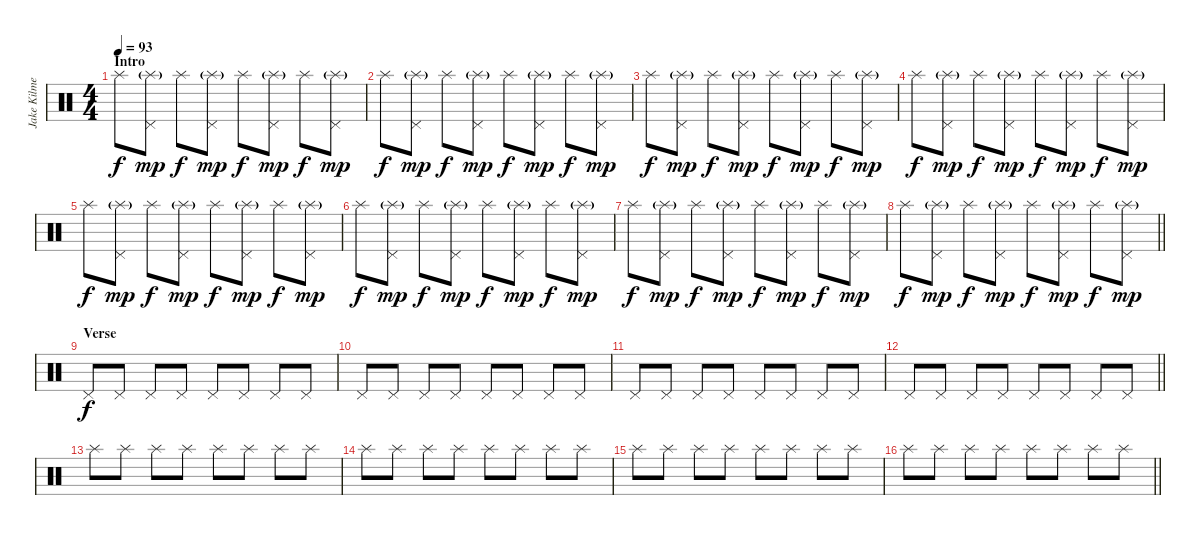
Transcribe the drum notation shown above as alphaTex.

\track ("Jake Kilmer (Drums)" "Jake Kilme") {instrument percussion}
\staff {score}
\articulation defaults
\ts (4 4)
\section ("" "Intro")
\tempo 93
\clef neutral
\ks c "Splash (hit)".8{dy f}
("Splash (hit)"{g} "Pedal Hi-Hat (hit)").8{dy mp} "Splash (hit)".8{dy f} ("Splash (hit)"{g} "Pedal Hi-Hat (hit)").8{dy mp} "Splash (hit)".8{dy f} ("Splash (hit)"{g} "Pedal Hi-Hat (hit)").8{dy mp} "Splash (hit)".8{dy f} ("Splash (hit)"{g} "Pedal Hi-Hat (hit)").8{dy mp} |
"Splash (hit)".8{dy f} ("Splash (hit)"{g} "Pedal Hi-Hat (hit)").8{dy mp} "Splash (hit)".8{dy f} ("Splash (hit)"{g} "Pedal Hi-Hat (hit)").8{dy mp} "Splash (hit)".8{dy f} ("Splash (hit)"{g} "Pedal Hi-Hat (hit)").8{dy mp} "Splash (hit)".8{dy f} ("Splash (hit)"{g} "Pedal Hi-Hat (hit)").8{dy mp} |
"Splash (hit)".8{dy f} ("Splash (hit)"{g} "Pedal Hi-Hat (hit)").8{dy mp} "Splash (hit)".8{dy f} ("Splash (hit)"{g} "Pedal Hi-Hat (hit)").8{dy mp} "Splash (hit)".8{dy f} ("Splash (hit)"{g} "Pedal Hi-Hat (hit)").8{dy mp} "Splash (hit)".8{dy f} ("Splash (hit)"{g} "Pedal Hi-Hat (hit)").8{dy mp} |
"Splash (hit)".8{dy f} ("Splash (hit)"{g} "Pedal Hi-Hat (hit)").8{dy mp} "Splash (hit)".8{dy f} ("Splash (hit)"{g} "Pedal Hi-Hat (hit)").8{dy mp} "Splash (hit)".8{dy f} ("Splash (hit)"{g} "Pedal Hi-Hat (hit)").8{dy mp} "Splash (hit)".8{dy f} ("Splash (hit)"{g} "Pedal Hi-Hat (hit)").8{dy mp} |
"Splash (hit)".8{dy f} ("Splash (hit)"{g} "Pedal Hi-Hat (hit)").8{dy mp} "Splash (hit)".8{dy f} ("Splash (hit)"{g} "Pedal Hi-Hat (hit)").8{dy mp} "Splash (hit)".8{dy f} ("Splash (hit)"{g} "Pedal Hi-Hat (hit)").8{dy mp} "Splash (hit)".8{dy f} ("Splash (hit)"{g} "Pedal Hi-Hat (hit)").8{dy mp} |
"Splash (hit)".8{dy f} ("Splash (hit)"{g} "Pedal Hi-Hat (hit)").8{dy mp} "Splash (hit)".8{dy f} ("Splash (hit)"{g} "Pedal Hi-Hat (hit)").8{dy mp} "Splash (hit)".8{dy f} ("Splash (hit)"{g} "Pedal Hi-Hat (hit)").8{dy mp} "Splash (hit)".8{dy f} ("Splash (hit)"{g} "Pedal Hi-Hat (hit)").8{dy mp} |
"Splash (hit)".8{dy f} ("Splash (hit)"{g} "Pedal Hi-Hat (hit)").8{dy mp} "Splash (hit)".8{dy f} ("Splash (hit)"{g} "Pedal Hi-Hat (hit)").8{dy mp} "Splash (hit)".8{dy f} ("Splash (hit)"{g} "Pedal Hi-Hat (hit)").8{dy mp} "Splash (hit)".8{dy f} ("Splash (hit)"{g} "Pedal Hi-Hat (hit)").8{dy mp} |
\barLineRight lightlight "Splash (hit)".8{dy f}
("Splash (hit)"{g} "Pedal Hi-Hat (hit)").8{dy mp} "Splash (hit)".8{dy f} ("Splash (hit)"{g} "Pedal Hi-Hat (hit)").8{dy mp} "Splash (hit)".8{dy f} ("Splash (hit)"{g} "Pedal Hi-Hat (hit)").8{dy mp} "Splash (hit)".8{dy f} ("Splash (hit)"{g} "Pedal Hi-Hat (hit)").8{dy mp} |
\section ("" "Verse")
"Pedal Hi-Hat (hit)".8{dy f} "Pedal Hi-Hat (hit)".8 "Pedal Hi-Hat (hit)".8 "Pedal Hi-Hat (hit)".8 "Pedal Hi-Hat (hit)".8 "Pedal Hi-Hat (hit)".8 "Pedal Hi-Hat (hit)".8 "Pedal Hi-Hat (hit)".8 |
"Pedal Hi-Hat (hit)".8 "Pedal Hi-Hat (hit)".8 "Pedal Hi-Hat (hit)".8 "Pedal Hi-Hat (hit)".8 "Pedal Hi-Hat (hit)".8 "Pedal Hi-Hat (hit)".8 "Pedal Hi-Hat (hit)".8 "Pedal Hi-Hat (hit)".8 |
"Pedal Hi-Hat (hit)".8 "Pedal Hi-Hat (hit)".8 "Pedal Hi-Hat (hit)".8 "Pedal Hi-Hat (hit)".8 "Pedal Hi-Hat (hit)".8 "Pedal Hi-Hat (hit)".8 "Pedal Hi-Hat (hit)".8 "Pedal Hi-Hat (hit)".8 |
\barLineRight lightlight "Pedal Hi-Hat (hit)".8 "Pedal Hi-Hat (hit)".8 "Pedal Hi-Hat (hit)".8 "Pedal Hi-Hat (hit)".8 "Pedal Hi-Hat (hit)".8 "Pedal Hi-Hat (hit)".8 "Pedal Hi-Hat (hit)".8 "Pedal Hi-Hat (hit)".8
|
"Splash (hit)".8 "Splash (hit)".8 "Splash (hit)".8 "Splash (hit)".8 "Splash (hit)".8 "Splash (hit)".8 "Splash (hit)".8 "Splash (hit)".8 |
"Splash (hit)".8 "Splash (hit)".8 "Splash (hit)".8 "Splash (hit)".8 "Splash (hit)".8 "Splash (hit)".8 "Splash (hit)".8 "Splash (hit)".8 |
"Splash (hit)".8 "Splash (hit)".8 "Splash (hit)".8 "Splash (hit)".8 "Splash (hit)".8 "Splash (hit)".8 "Splash (hit)".8 "Splash (hit)".8 |
\barLineRight lightlight "Splash (hit)".8 "Splash (hit)".8 "Splash (hit)".8 "Splash (hit)".8 "Splash (hit)".8 "Splash (hit)".8 "Splash (hit)".8 "Splash (hit)".8
